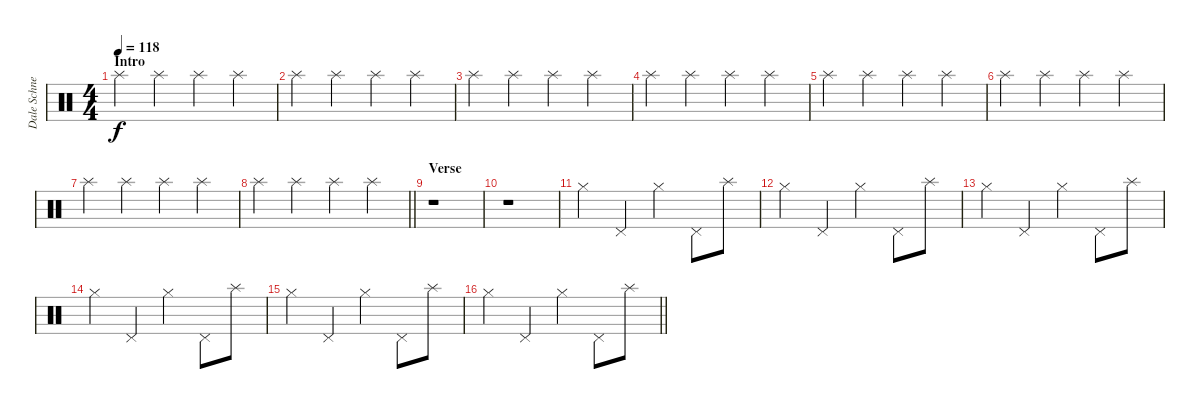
\track ("Dale Schnettler (Drums)" "Dale Schne") {instrument percussion}
\staff {score}
\articulation defaults
\ts (4 4)
\section ("" "Intro")
\tempo 118
\clef neutral
\ks c "Splash (hit)".4{dy f} "Splash (hit)".4 "Splash (hit)".4 "Splash (hit)".4
|
"Splash (hit)".4 "Splash (hit)".4 "Splash (hit)".4 "Splash (hit)".4 |
"Splash (hit)".4 "Splash (hit)".4 "Splash (hit)".4 "Splash (hit)".4 |
"Splash (hit)".4 "Splash (hit)".4 "Splash (hit)".4 "Splash (hit)".4 |
"Splash (hit)".4 "Splash (hit)".4 "Splash (hit)".4 "Splash (hit)".4 |
"Splash (hit)".4 "Splash (hit)".4 "Splash (hit)".4 "Splash (hit)".4 |
"Splash (hit)".4 "Splash (hit)".4 "Splash (hit)".4 "Splash (hit)".4 |
\barLineRight lightlight "Splash (hit)".4 "Splash (hit)".4 "Splash (hit)".4 "Splash (hit)".4
|
\section ("" "Verse")
r.1 |
r.1 |
"Hi-Hat (closed)".4 "Pedal Hi-Hat (hit)".4 "Hi-Hat (closed)".4 "Pedal Hi-Hat (hit)".8 "Splash (hit)".8 |
"Hi-Hat (closed)".4 "Pedal Hi-Hat (hit)".4 "Hi-Hat (closed)".4 "Pedal Hi-Hat (hit)".8 "Splash (hit)".8 |
"Hi-Hat (closed)".4 "Pedal Hi-Hat (hit)".4 "Hi-Hat (closed)".4 "Pedal Hi-Hat (hit)".8 "Splash (hit)".8 |
"Hi-Hat (closed)".4 "Pedal Hi-Hat (hit)".4 "Hi-Hat (closed)".4 "Pedal Hi-Hat (hit)".8 "Splash (hit)".8 |
"Hi-Hat (closed)".4 "Pedal Hi-Hat (hit)".4 "Hi-Hat (closed)".4 "Pedal Hi-Hat (hit)".8 "Splash (hit)".8 |
\barLineRight lightlight "Hi-Hat (closed)".4 "Pedal Hi-Hat (hit)".4 "Hi-Hat (closed)".4 "Pedal Hi-Hat (hit)".8 "Splash (hit)".8
